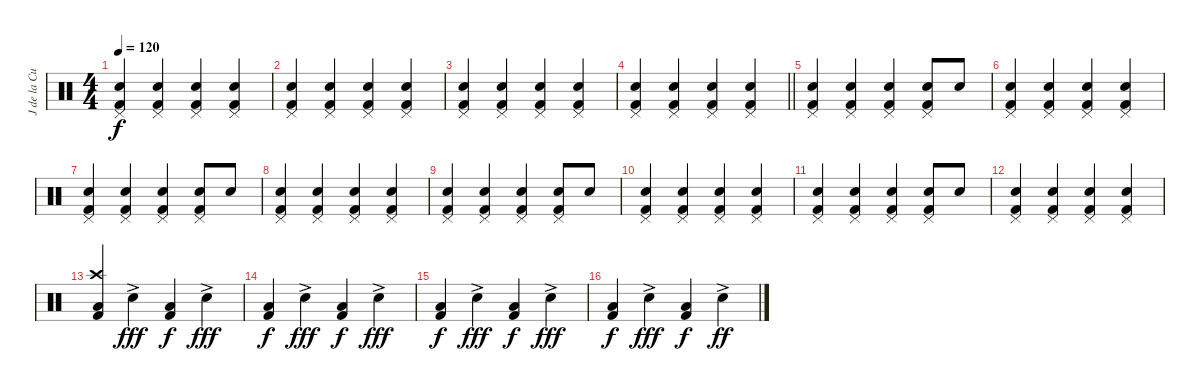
\track ("J de la Cueva" "J de la Cu") {instrument percussion}
\staff {score}
\articulation defaults
\ts (4 4)
\tempo 120
\clef neutral
\ks c
("Snare (hit) 2" "Kick (hit) 2" "Pedal Hi-Hat (hit)").4{dy f} ("Snare (hit) 2" "Kick (hit) 2" "Pedal Hi-Hat (hit)").4 ("Snare (hit) 2" "Kick (hit) 2" "Pedal Hi-Hat (hit)").4 ("Snare (hit) 2" "Kick (hit) 2" "Pedal Hi-Hat (hit)").4 |
("Snare (hit) 2" "Kick (hit) 2" "Pedal Hi-Hat (hit)").4 ("Snare (hit) 2" "Kick (hit) 2" "Pedal Hi-Hat (hit)").4 ("Snare (hit) 2" "Kick (hit) 2" "Pedal Hi-Hat (hit)").4 ("Snare (hit) 2" "Kick (hit) 2" "Pedal Hi-Hat (hit)").4 |
("Snare (hit) 2" "Kick (hit) 2" "Pedal Hi-Hat (hit)").4 ("Snare (hit) 2" "Kick (hit) 2" "Pedal Hi-Hat (hit)").4 ("Snare (hit) 2" "Kick (hit) 2" "Pedal Hi-Hat (hit)").4 ("Snare (hit) 2" "Kick (hit) 2" "Pedal Hi-Hat (hit)").4 |
\barLineRight lightlight
("Snare (hit) 2" "Kick (hit) 2" "Pedal Hi-Hat (hit)").4 ("Snare (hit) 2" "Kick (hit) 2" "Pedal Hi-Hat (hit)").4 ("Snare (hit) 2" "Kick (hit) 2" "Pedal Hi-Hat (hit)").4 ("Snare (hit) 2" "Kick (hit) 2" "Pedal Hi-Hat (hit)").4 |
("Snare (hit) 2" "Kick (hit) 2" "Pedal Hi-Hat (hit)").4 ("Snare (hit) 2" "Kick (hit) 2" "Pedal Hi-Hat (hit)").4 ("Snare (hit) 2" "Kick (hit) 2" "Pedal Hi-Hat (hit)").4 ("Snare (hit) 2" "Kick (hit) 2" "Pedal Hi-Hat (hit)").8 "Electric Snare (hit)".8 |
("Snare (hit) 2" "Kick (hit) 2" "Pedal Hi-Hat (hit)").4 ("Snare (hit) 2" "Kick (hit) 2" "Pedal Hi-Hat (hit)").4 ("Snare (hit) 2" "Kick (hit) 2" "Pedal Hi-Hat (hit)").4 ("Snare (hit) 2" "Kick (hit) 2" "Pedal Hi-Hat (hit)").4 |
("Snare (hit) 2" "Kick (hit) 2" "Pedal Hi-Hat (hit)").4 ("Snare (hit) 2" "Kick (hit) 2" "Pedal Hi-Hat (hit)").4 ("Snare (hit) 2" "Kick (hit) 2" "Pedal Hi-Hat (hit)").4 ("Snare (hit) 2" "Kick (hit) 2" "Pedal Hi-Hat (hit)").8 "Electric Snare (hit)".8 |
("Snare (hit) 2" "Kick (hit) 2" "Pedal Hi-Hat (hit)").4 ("Snare (hit) 2" "Kick (hit) 2" "Pedal Hi-Hat (hit)").4 ("Snare (hit) 2" "Kick (hit) 2" "Pedal Hi-Hat (hit)").4 ("Snare (hit) 2" "Kick (hit) 2" "Pedal Hi-Hat (hit)").4 |
("Snare (hit) 2" "Kick (hit) 2" "Pedal Hi-Hat (hit)").4 ("Snare (hit) 2" "Kick (hit) 2" "Pedal Hi-Hat (hit)").4 ("Snare (hit) 2" "Kick (hit) 2" "Pedal Hi-Hat (hit)").4 ("Snare (hit) 2" "Kick (hit) 2" "Pedal Hi-Hat (hit)").8 "Electric Snare (hit)".8 |
("Snare (hit) 2" "Kick (hit) 2" "Pedal Hi-Hat (hit)").4 ("Snare (hit) 2" "Kick (hit) 2" "Pedal Hi-Hat (hit)").4 ("Snare (hit) 2" "Kick (hit) 2" "Pedal Hi-Hat (hit)").4 ("Snare (hit) 2" "Kick (hit) 2" "Pedal Hi-Hat (hit)").4 |
("Snare (hit) 2" "Kick (hit) 2" "Pedal Hi-Hat (hit)").4 ("Snare (hit) 2" "Kick (hit) 2" "Pedal Hi-Hat (hit)").4 ("Snare (hit) 2" "Kick (hit) 2" "Pedal Hi-Hat (hit)").4 ("Snare (hit) 2" "Kick (hit) 2" "Pedal Hi-Hat (hit)").8 "Electric Snare (hit)".8 |
("Snare (hit) 2" "Kick (hit) 2" "Pedal Hi-Hat (hit)").4 ("Snare (hit) 2" "Kick (hit) 2" "Pedal Hi-Hat (hit)").4 ("Snare (hit) 2" "Kick (hit) 2" "Pedal Hi-Hat (hit)").4 ("Snare (hit) 2" "Kick (hit) 2" "Pedal Hi-Hat (hit)").4 |
("Crash high (hit)" "Low Tom (hit)" "Kick (hit) 2").4 "Snare (hit) 2"{ac}.4{dy fff} ("Low Tom (hit)" "Kick (hit) 2").4{dy f} "Snare (hit) 2"{ac}.4{dy fff} |
("Low Tom (hit)" "Kick (hit) 2").4{dy f} "Snare (hit) 2"{ac}.4{dy fff} ("Low Tom (hit)" "Kick (hit) 2").4{dy f} "Snare (hit) 2"{ac}.4{dy fff} |
("Low Tom (hit)" "Kick (hit) 2").4{dy f} "Snare (hit) 2"{ac}.4{dy fff} ("Low Tom (hit)" "Kick (hit) 2").4{dy f} "Snare (hit) 2"{ac}.4{dy fff} |
("Low Tom (hit)" "Kick (hit) 2").4{dy f} "Snare (hit) 2"{ac}.4{dy fff} ("Low Tom (hit)" "Kick (hit) 2").4{dy f} "Snare (hit) 2"{ac}.4{dy ff}
